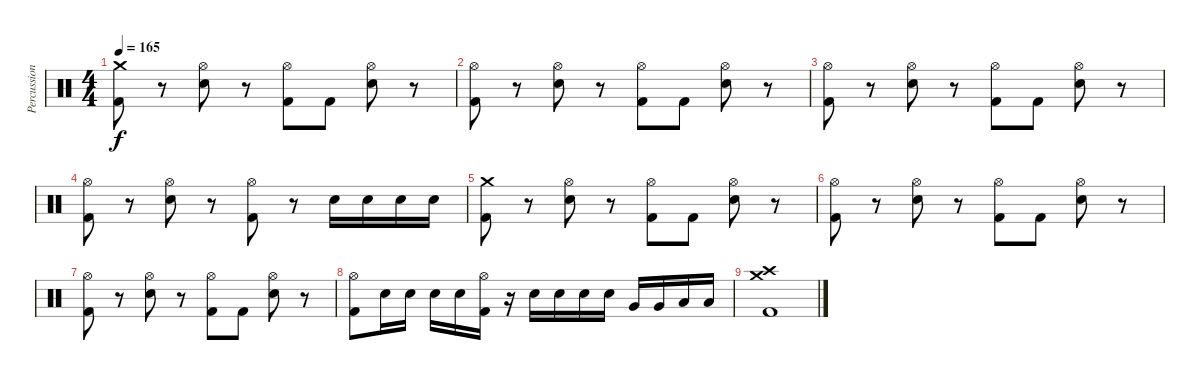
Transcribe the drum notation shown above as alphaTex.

\track ("Percussion" "Percussion") {instrument percussion}
\staff {score}
\articulation defaults
\ts (4 4)
\tempo 165
\clef neutral
\ks c
("Crash medium (hit)" "Kick (hit) 2").8{dy f} r.8 ("Hi-Hat (open)" "Electric Snare (hit)").8 r.8 ("Hi-Hat (open)" "Kick (hit) 2").8 "Kick (hit) 2".8 ("Hi-Hat (open)" "Electric Snare (hit)").8 r.8 |
("Hi-Hat (open)" "Kick (hit) 2").8 r.8 ("Hi-Hat (open)" "Electric Snare (hit)").8 r.8 ("Hi-Hat (open)" "Kick (hit) 2").8 "Kick (hit) 2".8 ("Hi-Hat (open)" "Electric Snare (hit)").8 r.8 |
("Hi-Hat (open)" "Kick (hit) 2").8 r.8 ("Hi-Hat (open)" "Electric Snare (hit)").8 r.8 ("Hi-Hat (open)" "Kick (hit) 2").8 "Kick (hit) 2".8 ("Hi-Hat (open)" "Electric Snare (hit)").8 r.8 |
("Hi-Hat (open)" "Kick (hit) 2").8 r.8 ("Hi-Hat (open)" "Electric Snare (hit)").8 r.8 ("Hi-Hat (open)" "Kick (hit) 2").8 r.8 "Electric Snare (hit)".16 "Electric Snare (hit)".16 "Electric Snare (hit)".16 "Electric Snare (hit)".16 |
("Crash medium (hit)" "Kick (hit) 2").8 r.8 ("Hi-Hat (open)" "Electric Snare (hit)").8 r.8 ("Hi-Hat (open)" "Kick (hit) 2").8 "Kick (hit) 2".8 ("Hi-Hat (open)" "Electric Snare (hit)").8 r.8 |
("Hi-Hat (open)" "Kick (hit) 2").8 r.8 ("Hi-Hat (open)" "Electric Snare (hit)").8 r.8 ("Hi-Hat (open)" "Kick (hit) 2").8 "Kick (hit) 2".8 ("Hi-Hat (open)" "Electric Snare (hit)").8 r.8 |
("Hi-Hat (open)" "Kick (hit) 2").8 r.8 ("Hi-Hat (open)" "Electric Snare (hit)").8 r.8 ("Hi-Hat (open)" "Kick (hit) 2").8 "Kick (hit) 2".8 ("Hi-Hat (open)" "Electric Snare (hit)").8 r.8 |
("Hi-Hat (open)" "Kick (hit) 2").8 "Electric Snare (hit)".16 "Electric Snare (hit)".16 "Electric Snare (hit)".16 "Electric Snare (hit)".16 ("Hi-Hat (open)" "Kick (hit) 2").16 r.16 "Electric Snare (hit)".16 "Electric Snare (hit)".16 "Electric Snare (hit)".16 "Electric Snare (hit)".16 "Very Low Tom (hit)".16 "Very Low Tom (hit)".16 "Low Floor Tom (hit)".16 "Low Floor Tom (hit)".16 |
("Crash medium (hit)" "Crash high (hit)" "Kick (hit) 2").1
